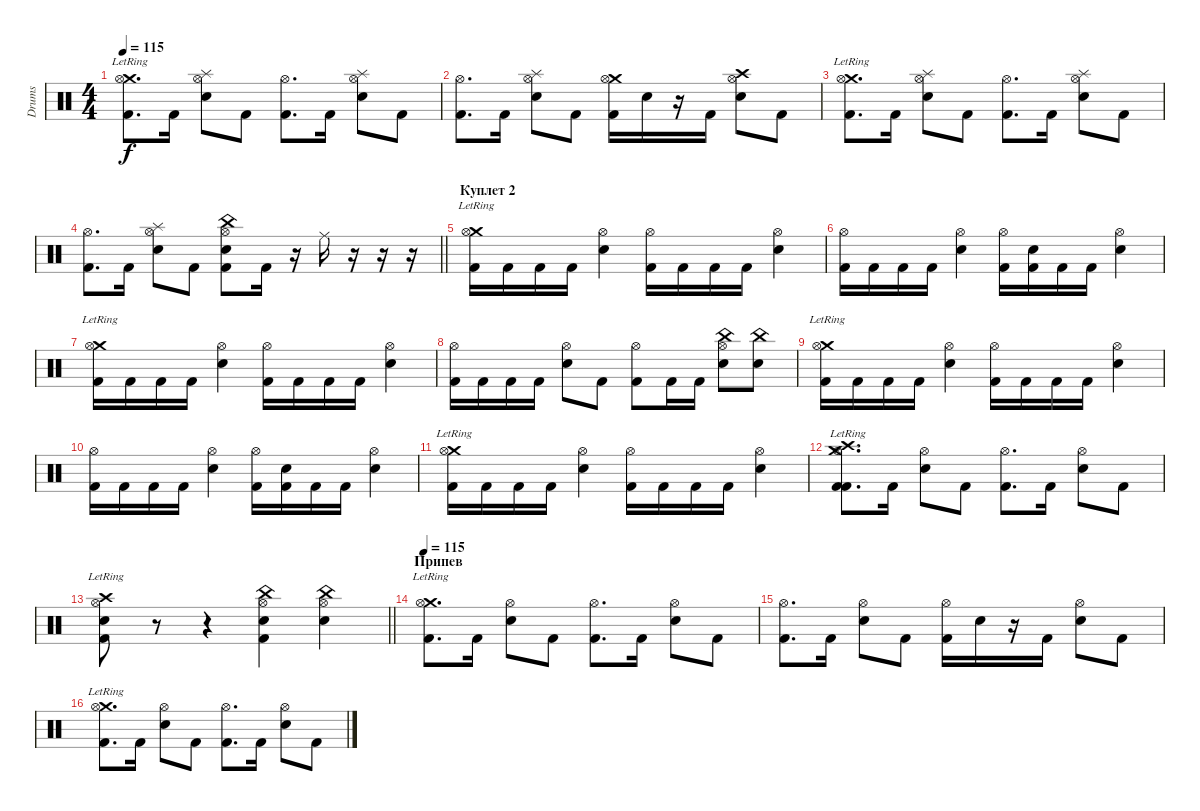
\track ("Drums" "Drums") {instrument percussion}
\staff {score}
\articulation defaults
\ts (4 4)
\tempo 115
\clef neutral
\ks c
("Crash medium (hit)"{lr} "Kick (hit) 2" "Hi-Hat (open)").8{d dy f} "Kick (hit) 2".16 ("Splash (hit)" "Electric Snare (hit)" "Hi-Hat (open)").8 "Kick (hit) 2".8 ("Kick (hit) 2" "Hi-Hat (open)").8{d} "Kick (hit) 2".16 ("Splash (hit)" "Electric Snare (hit)" "Hi-Hat (open)").8 "Kick (hit) 2".8 |
("Kick (hit) 2" "Hi-Hat (open)").8{d} "Kick (hit) 2".16 ("Splash (hit)" "Electric Snare (hit)" "Hi-Hat (open)").8 "Kick (hit) 2".8 ("Crash medium (hit)" "Kick (hit) 2" "Hi-Hat (open)").16 "Electric Snare (hit)".16 r.16 "Kick (hit) 2".16 ("Crash high (hit)" "Electric Snare (hit)" "Hi-Hat (open)").8 "Kick (hit) 2".8 |
("Crash medium (hit)"{lr} "Kick (hit) 2" "Hi-Hat (open)").8{d} "Kick (hit) 2".16 ("Splash (hit)" "Electric Snare (hit)" "Hi-Hat (open)").8 "Kick (hit) 2".8 ("Kick (hit) 2" "Hi-Hat (open)").8{d} "Kick (hit) 2".16 ("Splash (hit)" "Electric Snare (hit)" "Hi-Hat (open)").8 "Kick (hit) 2".8 |
\barLineRight lightlight
("Kick (hit) 2" "Hi-Hat (open)").8{d} "Kick (hit) 2".16 ("Splash (hit)" "Electric Snare (hit)" "Hi-Hat (open)").8 "Kick (hit) 2".8 ("China (hit)" "Electric Snare (hit)" "Kick (hit) 2" "Hi-Hat (open)").8 "Kick (hit) 2".16 r.16 "Ride (middle)".16 r.16 r.16 r.16 |
\section ("" "Куплет 2")
("Crash medium (hit)"{lr} "Kick (hit) 2" "Hi-Hat (open)").16 "Kick (hit) 2".16 "Kick (hit) 2".16 "Kick (hit) 2".16 ("Electric Snare (hit)" "Hi-Hat (open)").4 ("Kick (hit) 2" "Hi-Hat (open)").16 "Kick (hit) 2".16 "Kick (hit) 2".16 "Kick (hit) 2".16 ("Electric Snare (hit)" "Hi-Hat (open)").4 |
("Kick (hit) 2" "Hi-Hat (open)").16 "Kick (hit) 2".16 "Kick (hit) 2".16 "Kick (hit) 2".16 ("Electric Snare (hit)" "Hi-Hat (open)").4 ("Kick (hit) 2" "Hi-Hat (open)").16 ("Electric Snare (hit)" "Kick (hit) 2").16 "Kick (hit) 2".16 "Kick (hit) 2".16 ("Electric Snare (hit)" "Hi-Hat (open)").4 |
("Crash medium (hit)"{lr} "Kick (hit) 2" "Hi-Hat (open)").16 "Kick (hit) 2".16 "Kick (hit) 2".16 "Kick (hit) 2".16 ("Electric Snare (hit)" "Hi-Hat (open)").4 ("Kick (hit) 2" "Hi-Hat (open)").16 "Kick (hit) 2".16 "Kick (hit) 2".16 "Kick (hit) 2".16 ("Electric Snare (hit)" "Hi-Hat (open)").4 |
("Kick (hit) 2" "Hi-Hat (open)").16 "Kick (hit) 2".16 "Kick (hit) 2".16 "Kick (hit) 2".16 ("Electric Snare (hit)" "Hi-Hat (open)").8 "Kick (hit) 2".8 ("Kick (hit) 2" "Hi-Hat (open)").8 "Kick (hit) 2".16 "Kick (hit) 2".16 ("China (hit)" "Electric Snare (hit)" "Hi-Hat (open)").8 ("China (hit)" "Electric Snare (hit)").8 |
("Crash medium (hit)"{lr} "Kick (hit) 2" "Hi-Hat (open)").16 "Kick (hit) 2".16 "Kick (hit) 2".16 "Kick (hit) 2".16 ("Electric Snare (hit)" "Hi-Hat (open)").4 ("Kick (hit) 2" "Hi-Hat (open)").16 "Kick (hit) 2".16 "Kick (hit) 2".16 "Kick (hit) 2".16 ("Electric Snare (hit)" "Hi-Hat (open)").4 |
("Kick (hit) 2" "Hi-Hat (open)").16 "Kick (hit) 2".16 "Kick (hit) 2".16 "Kick (hit) 2".16 ("Electric Snare (hit)" "Hi-Hat (open)").4 ("Kick (hit) 2" "Hi-Hat (open)").16 ("Electric Snare (hit)" "Kick (hit) 2").16 "Kick (hit) 2".16 "Kick (hit) 2".16 ("Electric Snare (hit)" "Hi-Hat (open)").4 |
("Crash medium (hit)"{lr} "Kick (hit) 2" "Hi-Hat (open)").16 "Kick (hit) 2".16 "Kick (hit) 2".16 "Kick (hit) 2".16 ("Electric Snare (hit)" "Hi-Hat (open)").4 ("Kick (hit) 2" "Hi-Hat (open)").16 "Kick (hit) 2".16 "Kick (hit) 2".16 "Kick (hit) 2".16 ("Electric Snare (hit)" "Hi-Hat (open)").4 |
("Crash medium (hit)"{lr} "Crash high (hit)"{lr} "Kick (hit) 2" "Kick (hit) 2" "Hi-Hat (open)").8{d} "Kick (hit) 2".16 ("Electric Snare (hit)" "Hi-Hat (open)").8 "Kick (hit) 2".8 ("Kick (hit) 2" "Hi-Hat (open)").8{d} "Kick (hit) 2".16 ("Electric Snare (hit)" "Hi-Hat (open)").8 "Kick (hit) 2".8 |
\barLineRight lightlight
("Crash high (hit)"{lr} "Electric Snare (hit)" "Kick (hit) 2" "Hi-Hat (open)").8 r.8 r.4 ("China (hit)" "Electric Snare (hit)" "Kick (hit) 2" "Hi-Hat (open)").4 ("China (hit)" "Electric Snare (hit)" "Hi-Hat (open)").4 |
\section ("" "Припев")
\tempo 115
("Crash medium (hit)"{lr} "Kick (hit) 2" "Hi-Hat (open)").8{d} "Kick (hit) 2".16 ("Electric Snare (hit)" "Hi-Hat (open)").8 "Kick (hit) 2".8 ("Kick (hit) 2" "Hi-Hat (open)").8{d} "Kick (hit) 2".16 ("Electric Snare (hit)" "Hi-Hat (open)").8 "Kick (hit) 2".8 |
("Kick (hit) 2" "Hi-Hat (open)").8{d} "Kick (hit) 2".16 ("Electric Snare (hit)" "Hi-Hat (open)").8 "Kick (hit) 2".8 ("Kick (hit) 2" "Hi-Hat (open)").16 "Electric Snare (hit)".16 r.16 "Kick (hit) 2".16 ("Electric Snare (hit)" "Hi-Hat (open)").8 "Kick (hit) 2".8 |
("Crash medium (hit)"{lr} "Kick (hit) 2" "Hi-Hat (open)").8{d} "Kick (hit) 2".16 ("Electric Snare (hit)" "Hi-Hat (open)").8 "Kick (hit) 2".8 ("Kick (hit) 2" "Hi-Hat (open)").8{d} "Kick (hit) 2".16 ("Electric Snare (hit)" "Hi-Hat (open)").8 "Kick (hit) 2".8
